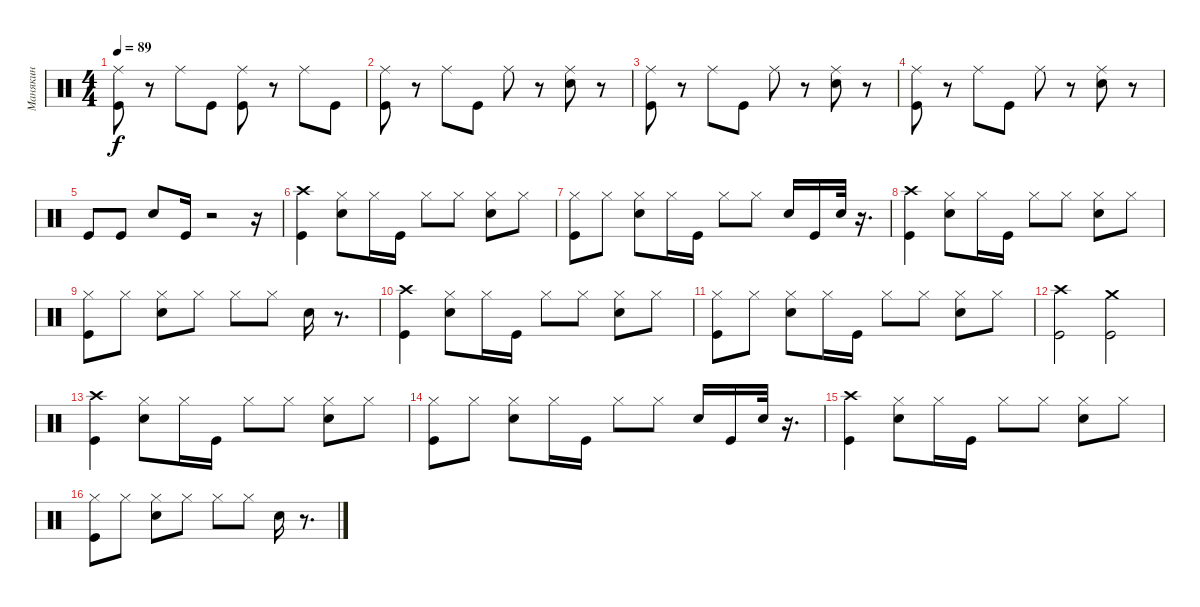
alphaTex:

\track ("Манякин" "Манякин") {instrument percussion}
\staff {score}
\articulation defaults
\ts (4 4)
\tempo 89
\clef neutral
\ks c
("Kick (hit)" "Ride (middle)").8{dy f} r.8 "Ride (middle)".8 "Kick (hit)".8 ("Ride (middle)" "Kick (hit)").8 r.8 "Ride (middle)".8 "Kick (hit)".8 |
("Ride (middle)" "Kick (hit)").8 r.8 "Ride (middle)".8 "Kick (hit)".8 "Ride (middle)".8 r.8 ("Electric Snare (hit)" "Ride (middle)").8 r.8 |
("Ride (middle)" "Kick (hit)").8 r.8 "Ride (middle)".8 "Kick (hit)".8 "Ride (middle)".8 r.8 ("Electric Snare (hit)" "Ride (middle)").8 r.8 |
("Kick (hit)" "Ride (middle)").8 r.8 "Ride (middle)".8 "Kick (hit)".8 "Ride (middle)".8 r.8 ("Ride (middle)" "Electric Snare (hit)").8 r.8 |
"Kick (hit)".8 "Kick (hit)".8 "Electric Snare (hit)".8 "Kick (hit)".16 r.2 r.16 |
("Crash high (hit)" "Kick (hit)").4 ("Electric Snare (hit)" "Hi-Hat (closed)").8 "Hi-Hat (closed)".16 "Kick (hit)".16 "Hi-Hat (closed)".8 "Hi-Hat (closed)".8 ("Electric Snare (hit)" "Hi-Hat (closed)").8 "Hi-Hat (closed)".8 |
("Kick (hit)" "Hi-Hat (closed)").8 "Hi-Hat (closed)".8 ("Hi-Hat (closed)" "Electric Snare (hit)").8 "Hi-Hat (closed)".16 "Kick (hit)".16 "Hi-Hat (closed)".8 "Hi-Hat (closed)".8 "Electric Snare (hit)".16 "Kick (hit)".16 "Electric Snare (hit)".32 r.16{d} |
("Crash high (hit)" "Kick (hit)").4 ("Electric Snare (hit)" "Hi-Hat (closed)").8 "Hi-Hat (closed)".16 "Kick (hit)".16 "Hi-Hat (closed)".8 "Hi-Hat (closed)".8 ("Hi-Hat (closed)" "Electric Snare (hit)").8 "Hi-Hat (closed)".8 |
("Hi-Hat (closed)" "Kick (hit)").8 "Hi-Hat (closed)".8 ("Hi-Hat (closed)" "Electric Snare (hit)").8 "Hi-Hat (closed)".8 "Hi-Hat (closed)".8 "Hi-Hat (closed)".8 "Electric Snare (hit)".16 r.8{d} |
("Kick (hit)" "Crash high (hit)").4 ("Electric Snare (hit)" "Hi-Hat (closed)").8 "Hi-Hat (closed)".16 "Kick (hit)".16 "Hi-Hat (closed)".8 "Hi-Hat (closed)".8 ("Hi-Hat (closed)" "Electric Snare (hit)").8 "Hi-Hat (closed)".8 |
("Kick (hit)" "Hi-Hat (closed)").8 "Hi-Hat (closed)".8 ("Hi-Hat (closed)" "Electric Snare (hit)").8 "Hi-Hat (closed)".16 "Kick (hit)".16 "Hi-Hat (closed)".8 "Hi-Hat (closed)".8 ("Electric Snare (hit)" "Hi-Hat (closed)").8 "Hi-Hat (closed)".8 |
("Kick (hit)" "Crash high (hit)").2 ("Crash medium (hit)" "Kick (hit)").2 |
("Kick (hit)" "Crash high (hit)").4 ("Hi-Hat (closed)" "Electric Snare (hit)").8 "Hi-Hat (closed)".16 "Kick (hit)".16 "Hi-Hat (closed)".8 "Hi-Hat (closed)".8 ("Electric Snare (hit)" "Hi-Hat (closed)").8 "Hi-Hat (closed)".8 |
("Kick (hit)" "Hi-Hat (closed)").8 "Hi-Hat (closed)".8 ("Hi-Hat (closed)" "Electric Snare (hit)").8 "Hi-Hat (closed)".16 "Kick (hit)".16 "Hi-Hat (closed)".8 "Hi-Hat (closed)".8 "Electric Snare (hit)".16 "Kick (hit)".16 "Electric Snare (hit)".32 r.16{d} |
("Crash high (hit)" "Kick (hit)").4 ("Electric Snare (hit)" "Hi-Hat (closed)").8 "Hi-Hat (closed)".16 "Kick (hit)".16 "Hi-Hat (closed)".8 "Hi-Hat (closed)".8 ("Hi-Hat (closed)" "Electric Snare (hit)").8 "Hi-Hat (closed)".8 |
("Hi-Hat (closed)" "Kick (hit)").8 "Hi-Hat (closed)".8 ("Hi-Hat (closed)" "Electric Snare (hit)").8 "Hi-Hat (closed)".8 "Hi-Hat (closed)".8 "Hi-Hat (closed)".8 "Electric Snare (hit)".16 r.8{d}
